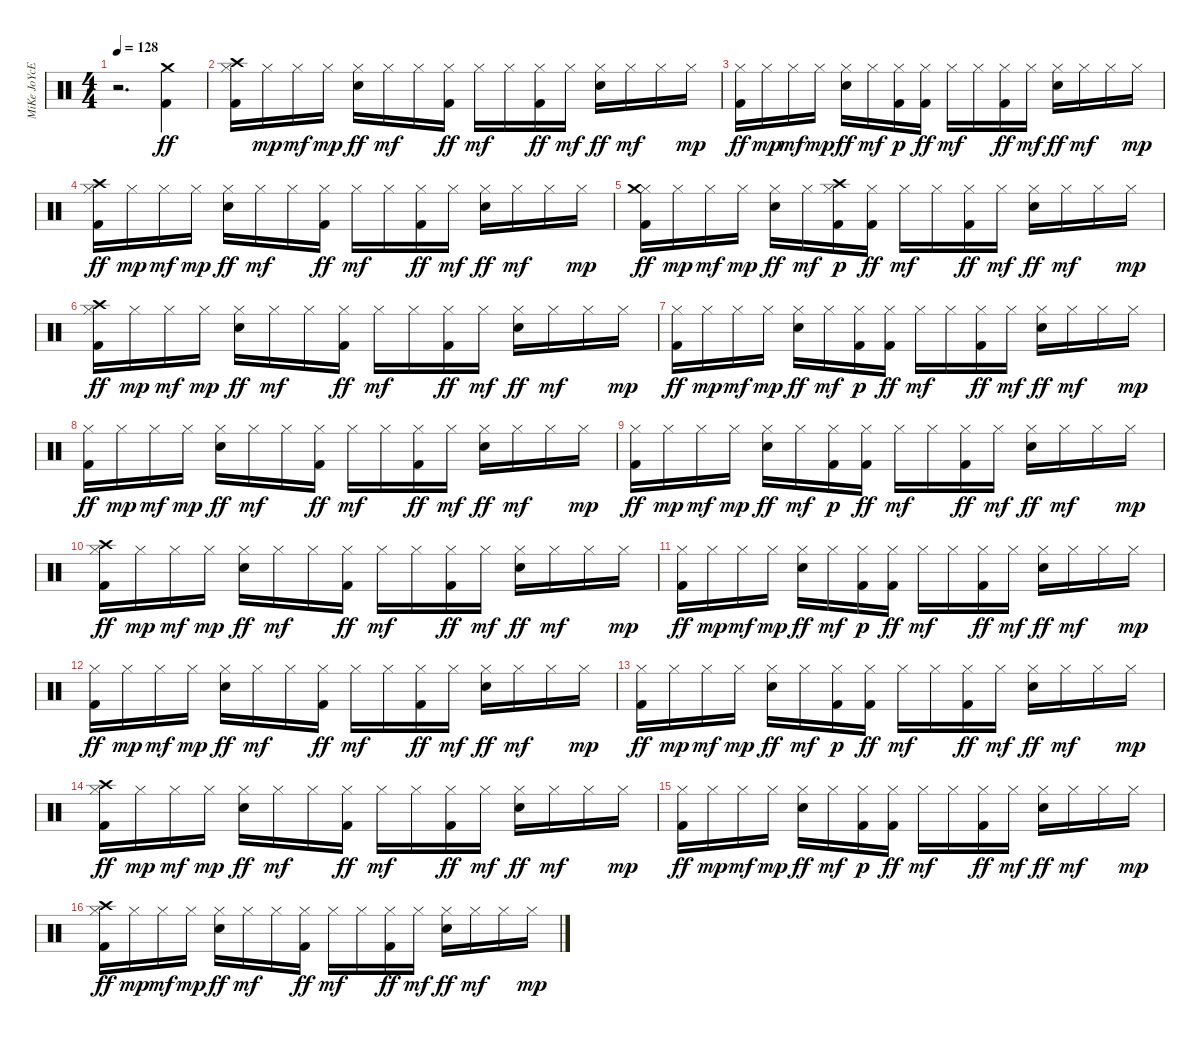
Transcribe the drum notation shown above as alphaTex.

\track ("MiKe JoYcE" "MiKe JoYcE") {instrument percussion}
\staff {score}
\articulation defaults
\ts (4 4)
\tempo 128
\clef neutral
\ks c
r.2{d dy ff} ("Crash medium (hit)" "Kick (hit) 2").4 |
("Hi-Hat (closed)" "Crash high (hit)" "Kick (hit) 2").16 "Hi-Hat (closed)".16{dy mp} "Hi-Hat (closed)".16{dy mf} "Hi-Hat (closed)".16{dy mp} ("Hi-Hat (closed)" "Electric Snare (hit)").16{dy ff} "Hi-Hat (closed)".16{dy mf} "Hi-Hat (closed)".16 ("Hi-Hat (closed)" "Kick (hit) 2").16{dy ff} "Hi-Hat (closed)".16{dy mf} "Hi-Hat (closed)".16 ("Hi-Hat (closed)" "Kick (hit) 2").16{dy ff} "Hi-Hat (closed)".16{dy mf} ("Hi-Hat (closed)" "Electric Snare (hit)").16{dy ff} "Hi-Hat (closed)".16{dy mf} "Hi-Hat (closed)".16 "Hi-Hat (closed)".16{dy mp} |
("Hi-Hat (closed)" "Kick (hit) 2").16{dy ff} "Hi-Hat (closed)".16{dy mp} "Hi-Hat (closed)".16{dy mf} "Hi-Hat (closed)".16{dy mp} ("Hi-Hat (closed)" "Electric Snare (hit)").16{dy ff} "Hi-Hat (closed)".16{dy mf} ("Hi-Hat (closed)" "Kick (hit) 2").16{dy p} ("Hi-Hat (closed)" "Kick (hit) 2").16{dy ff} "Hi-Hat (closed)".16{dy mf} "Hi-Hat (closed)".16 ("Hi-Hat (closed)" "Kick (hit) 2").16{dy ff} "Hi-Hat (closed)".16{dy mf} ("Hi-Hat (closed)" "Electric Snare (hit)").16{dy ff} "Hi-Hat (closed)".16{dy mf} "Hi-Hat (closed)".16 "Hi-Hat (closed)".16{dy mp} |
("Hi-Hat (closed)" "Crash high (hit)" "Kick (hit) 2").16{dy ff} "Hi-Hat (closed)".16{dy mp} "Hi-Hat (closed)".16{dy mf} "Hi-Hat (closed)".16{dy mp} ("Hi-Hat (closed)" "Electric Snare (hit)").16{dy ff} "Hi-Hat (closed)".16{dy mf} "Hi-Hat (closed)".16 ("Hi-Hat (closed)" "Kick (hit) 2").16{dy ff} "Hi-Hat (closed)".16{dy mf} "Hi-Hat (closed)".16 ("Hi-Hat (closed)" "Kick (hit) 2").16{dy ff} "Hi-Hat (closed)".16{dy mf} ("Hi-Hat (closed)" "Electric Snare (hit)").16{dy ff} "Hi-Hat (closed)".16{dy mf} "Hi-Hat (closed)".16 "Hi-Hat (closed)".16{dy mp} |
("Hi-Hat (closed)" "Crash medium (hit)" "Kick (hit) 2").16{dy ff} "Hi-Hat (closed)".16{dy mp} "Hi-Hat (closed)".16{dy mf} "Hi-Hat (closed)".16{dy mp} ("Hi-Hat (closed)" "Electric Snare (hit)").16{dy ff} "Hi-Hat (closed)".16{dy mf} ("Hi-Hat (closed)" "Crash high (hit)" "Kick (hit) 2").16{dy p} ("Hi-Hat (closed)" "Kick (hit) 2").16{dy ff} "Hi-Hat (closed)".16{dy mf} "Hi-Hat (closed)".16 ("Hi-Hat (closed)" "Kick (hit) 2").16{dy ff} "Hi-Hat (closed)".16{dy mf} ("Hi-Hat (closed)" "Electric Snare (hit)").16{dy ff} "Hi-Hat (closed)".16{dy mf} "Hi-Hat (closed)".16 "Hi-Hat (closed)".16{dy mp} |
("Hi-Hat (closed)" "Crash high (hit)" "Kick (hit) 2").16{dy ff} "Hi-Hat (closed)".16{dy mp} "Hi-Hat (closed)".16{dy mf} "Hi-Hat (closed)".16{dy mp} ("Hi-Hat (closed)" "Electric Snare (hit)").16{dy ff} "Hi-Hat (closed)".16{dy mf} "Hi-Hat (closed)".16 ("Hi-Hat (closed)" "Kick (hit) 2").16{dy ff} "Hi-Hat (closed)".16{dy mf} "Hi-Hat (closed)".16 ("Hi-Hat (closed)" "Kick (hit) 2").16{dy ff} "Hi-Hat (closed)".16{dy mf} ("Hi-Hat (closed)" "Electric Snare (hit)").16{dy ff} "Hi-Hat (closed)".16{dy mf} "Hi-Hat (closed)".16 "Hi-Hat (closed)".16{dy mp} |
("Hi-Hat (closed)" "Kick (hit) 2").16{dy ff} "Hi-Hat (closed)".16{dy mp} "Hi-Hat (closed)".16{dy mf} "Hi-Hat (closed)".16{dy mp} ("Hi-Hat (closed)" "Electric Snare (hit)").16{dy ff} "Hi-Hat (closed)".16{dy mf} ("Hi-Hat (closed)" "Kick (hit) 2").16{dy p} ("Hi-Hat (closed)" "Kick (hit) 2").16{dy ff} "Hi-Hat (closed)".16{dy mf} "Hi-Hat (closed)".16 ("Hi-Hat (closed)" "Kick (hit) 2").16{dy ff} "Hi-Hat (closed)".16{dy mf} ("Hi-Hat (closed)" "Electric Snare (hit)").16{dy ff} "Hi-Hat (closed)".16{dy mf} "Hi-Hat (closed)".16 "Hi-Hat (closed)".16{dy mp} |
("Hi-Hat (closed)" "Kick (hit) 2").16{dy ff} "Hi-Hat (closed)".16{dy mp} "Hi-Hat (closed)".16{dy mf} "Hi-Hat (closed)".16{dy mp} ("Hi-Hat (closed)" "Electric Snare (hit)").16{dy ff} "Hi-Hat (closed)".16{dy mf} "Hi-Hat (closed)".16 ("Hi-Hat (closed)" "Kick (hit) 2").16{dy ff} "Hi-Hat (closed)".16{dy mf} "Hi-Hat (closed)".16 ("Hi-Hat (closed)" "Kick (hit) 2").16{dy ff} "Hi-Hat (closed)".16{dy mf} ("Hi-Hat (closed)" "Electric Snare (hit)").16{dy ff} "Hi-Hat (closed)".16{dy mf} "Hi-Hat (closed)".16 "Hi-Hat (closed)".16{dy mp} |
("Hi-Hat (closed)" "Kick (hit) 2").16{dy ff} "Hi-Hat (closed)".16{dy mp} "Hi-Hat (closed)".16{dy mf} "Hi-Hat (closed)".16{dy mp} ("Hi-Hat (closed)" "Electric Snare (hit)").16{dy ff} "Hi-Hat (closed)".16{dy mf} ("Hi-Hat (closed)" "Kick (hit) 2").16{dy p} ("Hi-Hat (closed)" "Kick (hit) 2").16{dy ff} "Hi-Hat (closed)".16{dy mf} "Hi-Hat (closed)".16 ("Hi-Hat (closed)" "Kick (hit) 2").16{dy ff} "Hi-Hat (closed)".16{dy mf} ("Hi-Hat (closed)" "Electric Snare (hit)").16{dy ff} "Hi-Hat (closed)".16{dy mf} "Hi-Hat (closed)".16 "Hi-Hat (closed)".16{dy mp} |
("Hi-Hat (closed)" "Crash high (hit)" "Kick (hit) 2").16{dy ff} "Hi-Hat (closed)".16{dy mp} "Hi-Hat (closed)".16{dy mf} "Hi-Hat (closed)".16{dy mp} ("Hi-Hat (closed)" "Electric Snare (hit)").16{dy ff} "Hi-Hat (closed)".16{dy mf} "Hi-Hat (closed)".16 ("Hi-Hat (closed)" "Kick (hit) 2").16{dy ff} "Hi-Hat (closed)".16{dy mf} "Hi-Hat (closed)".16 ("Hi-Hat (closed)" "Kick (hit) 2").16{dy ff} "Hi-Hat (closed)".16{dy mf} ("Hi-Hat (closed)" "Electric Snare (hit)").16{dy ff} "Hi-Hat (closed)".16{dy mf} "Hi-Hat (closed)".16 "Hi-Hat (closed)".16{dy mp} |
("Hi-Hat (closed)" "Kick (hit) 2").16{dy ff} "Hi-Hat (closed)".16{dy mp} "Hi-Hat (closed)".16{dy mf} "Hi-Hat (closed)".16{dy mp} ("Hi-Hat (closed)" "Electric Snare (hit)").16{dy ff} "Hi-Hat (closed)".16{dy mf} ("Hi-Hat (closed)" "Kick (hit) 2").16{dy p} ("Hi-Hat (closed)" "Kick (hit) 2").16{dy ff} "Hi-Hat (closed)".16{dy mf} "Hi-Hat (closed)".16 ("Hi-Hat (closed)" "Kick (hit) 2").16{dy ff} "Hi-Hat (closed)".16{dy mf} ("Hi-Hat (closed)" "Electric Snare (hit)").16{dy ff} "Hi-Hat (closed)".16{dy mf} "Hi-Hat (closed)".16 "Hi-Hat (closed)".16{dy mp} |
("Hi-Hat (closed)" "Kick (hit) 2").16{dy ff} "Hi-Hat (closed)".16{dy mp} "Hi-Hat (closed)".16{dy mf} "Hi-Hat (closed)".16{dy mp} ("Hi-Hat (closed)" "Electric Snare (hit)").16{dy ff} "Hi-Hat (closed)".16{dy mf} "Hi-Hat (closed)".16 ("Hi-Hat (closed)" "Kick (hit) 2").16{dy ff} "Hi-Hat (closed)".16{dy mf} "Hi-Hat (closed)".16 ("Hi-Hat (closed)" "Kick (hit) 2").16{dy ff} "Hi-Hat (closed)".16{dy mf} ("Hi-Hat (closed)" "Electric Snare (hit)").16{dy ff} "Hi-Hat (closed)".16{dy mf} "Hi-Hat (closed)".16 "Hi-Hat (closed)".16{dy mp} |
("Hi-Hat (closed)" "Kick (hit) 2").16{dy ff} "Hi-Hat (closed)".16{dy mp} "Hi-Hat (closed)".16{dy mf} "Hi-Hat (closed)".16{dy mp} ("Hi-Hat (closed)" "Electric Snare (hit)").16{dy ff} "Hi-Hat (closed)".16{dy mf} ("Hi-Hat (closed)" "Kick (hit) 2").16{dy p} ("Hi-Hat (closed)" "Kick (hit) 2").16{dy ff} "Hi-Hat (closed)".16{dy mf} "Hi-Hat (closed)".16 ("Hi-Hat (closed)" "Kick (hit) 2").16{dy ff} "Hi-Hat (closed)".16{dy mf} ("Hi-Hat (closed)" "Electric Snare (hit)").16{dy ff} "Hi-Hat (closed)".16{dy mf} "Hi-Hat (closed)".16 "Hi-Hat (closed)".16{dy mp} |
("Hi-Hat (closed)" "Crash high (hit)" "Kick (hit) 2").16{dy ff} "Hi-Hat (closed)".16{dy mp} "Hi-Hat (closed)".16{dy mf} "Hi-Hat (closed)".16{dy mp} ("Hi-Hat (closed)" "Electric Snare (hit)").16{dy ff} "Hi-Hat (closed)".16{dy mf} "Hi-Hat (closed)".16 ("Hi-Hat (closed)" "Kick (hit) 2").16{dy ff} "Hi-Hat (closed)".16{dy mf} "Hi-Hat (closed)".16 ("Hi-Hat (closed)" "Kick (hit) 2").16{dy ff} "Hi-Hat (closed)".16{dy mf} ("Hi-Hat (closed)" "Electric Snare (hit)").16{dy ff} "Hi-Hat (closed)".16{dy mf} "Hi-Hat (closed)".16 "Hi-Hat (closed)".16{dy mp} |
("Hi-Hat (closed)" "Kick (hit) 2").16{dy ff} "Hi-Hat (closed)".16{dy mp} "Hi-Hat (closed)".16{dy mf} "Hi-Hat (closed)".16{dy mp} ("Hi-Hat (closed)" "Electric Snare (hit)").16{dy ff} "Hi-Hat (closed)".16{dy mf} ("Hi-Hat (closed)" "Kick (hit) 2").16{dy p} ("Hi-Hat (closed)" "Kick (hit) 2").16{dy ff} "Hi-Hat (closed)".16{dy mf} "Hi-Hat (closed)".16 ("Hi-Hat (closed)" "Kick (hit) 2").16{dy ff} "Hi-Hat (closed)".16{dy mf} ("Hi-Hat (closed)" "Electric Snare (hit)").16{dy ff} "Hi-Hat (closed)".16{dy mf} "Hi-Hat (closed)".16 "Hi-Hat (closed)".16{dy mp} |
("Hi-Hat (closed)" "Crash high (hit)" "Kick (hit) 2").16{dy ff} "Hi-Hat (closed)".16{dy mp} "Hi-Hat (closed)".16{dy mf} "Hi-Hat (closed)".16{dy mp} ("Hi-Hat (closed)" "Electric Snare (hit)").16{dy ff} "Hi-Hat (closed)".16{dy mf} "Hi-Hat (closed)".16 ("Hi-Hat (closed)" "Kick (hit) 2").16{dy ff} "Hi-Hat (closed)".16{dy mf} "Hi-Hat (closed)".16 ("Hi-Hat (closed)" "Kick (hit) 2").16{dy ff} "Hi-Hat (closed)".16{dy mf} ("Hi-Hat (closed)" "Electric Snare (hit)").16{dy ff} "Hi-Hat (closed)".16{dy mf} "Hi-Hat (closed)".16 "Hi-Hat (closed)".16{dy mp}
